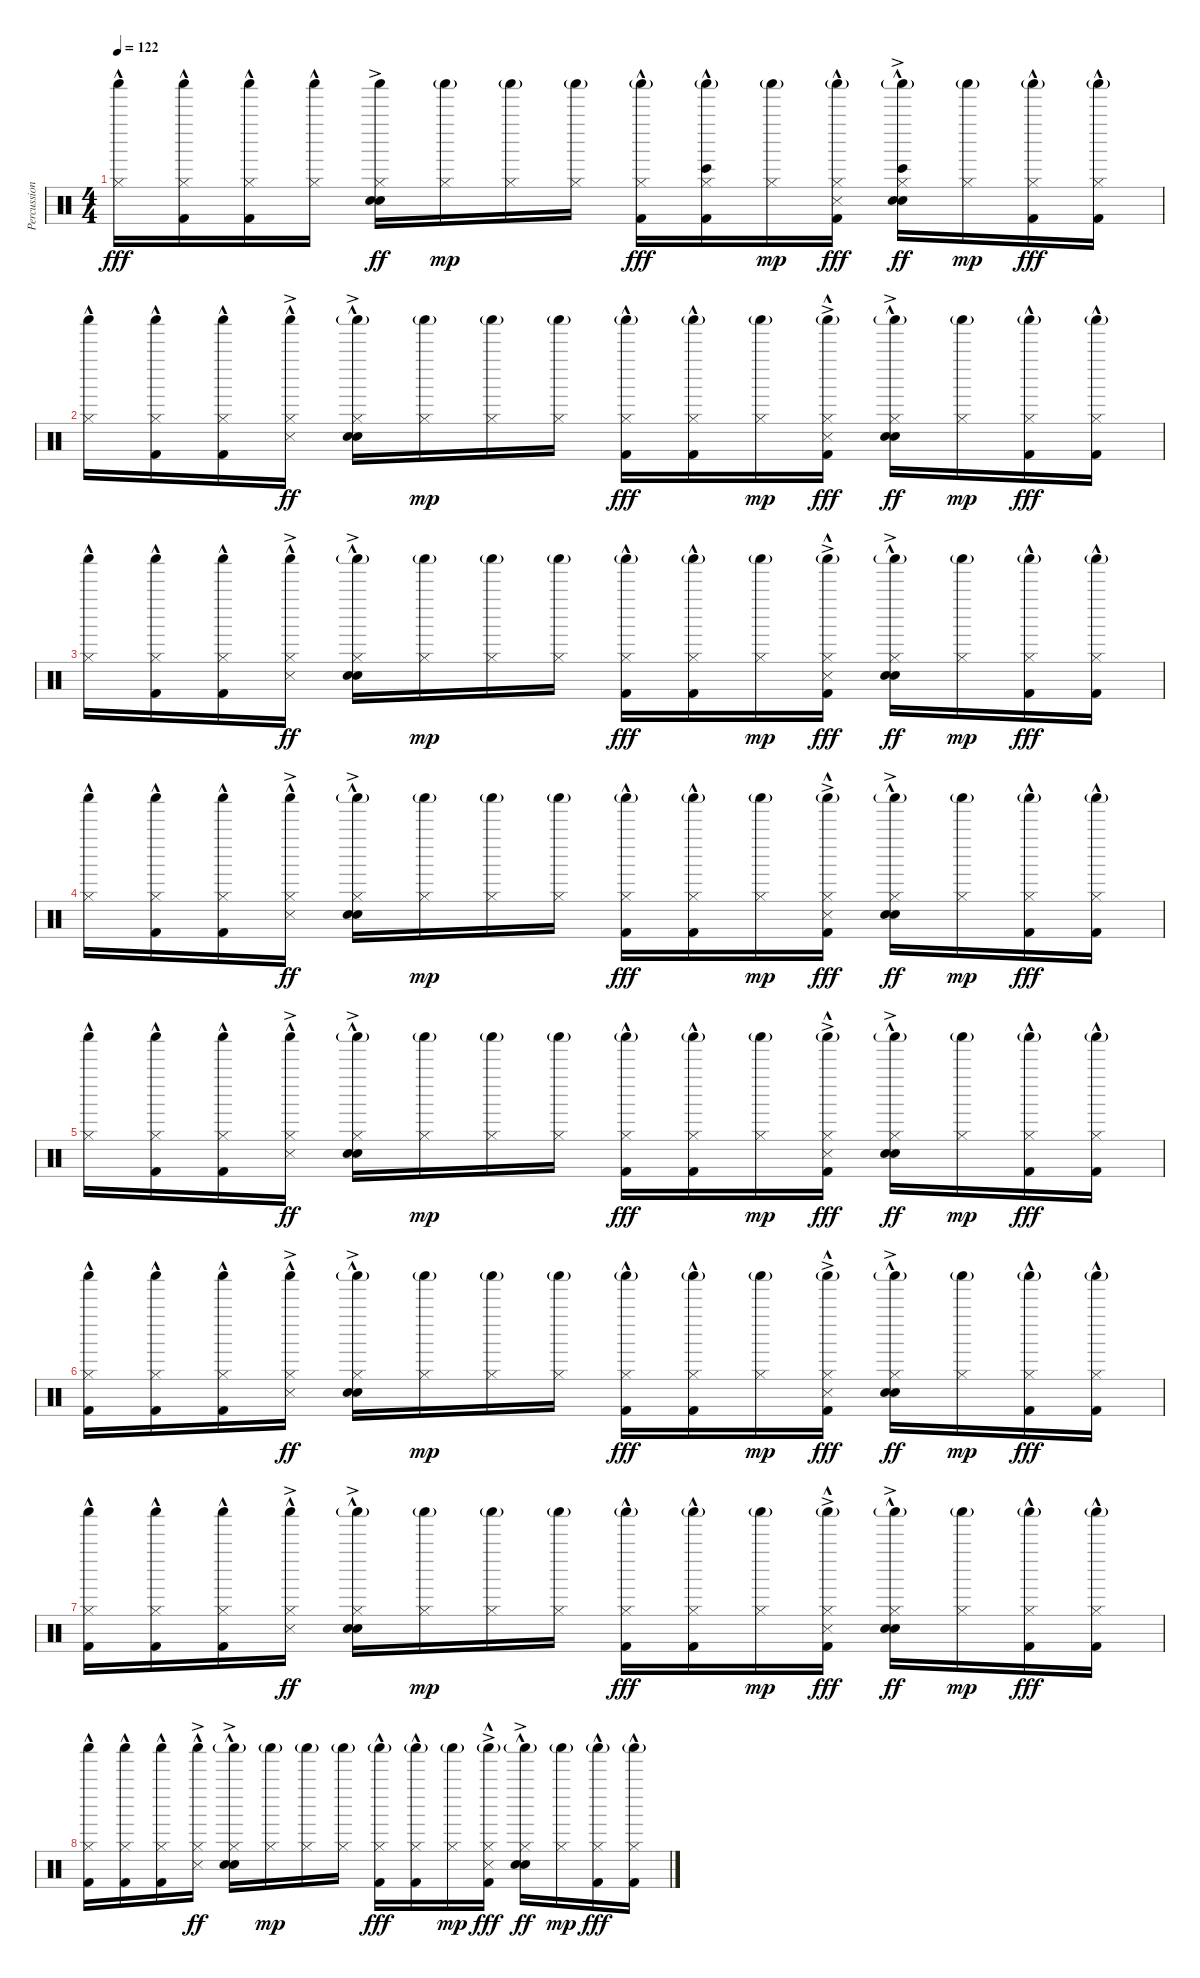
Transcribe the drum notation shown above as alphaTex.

\track ("Percussion" "Percussion") {instrument percussion}
\staff {score}
\articulation defaults
\ts (4 4)
\tempo 122
\clef neutral
\ks c
("Shaker (hit)" "Hi-Hat (closed)"{hac}).16{dy fff} ("Shaker (hit)" "Hi-Hat (closed)"{hac} "Kick (hit) 2"{hac}).16 ("Shaker (hit)" "Hi-Hat (closed)"{hac} "Kick (hit) 2"{hac}).16 ("Shaker (hit)" "Hi-Hat (closed)"{hac}).16 ("Shaker (hit)" "Hi-Hat (closed)" "Hand Clap (hit)" "Snare (hit) 2"{ac}).16{dy ff} ("Shaker (hit)"{g} "Hi-Hat (closed)").16{dy mp} ("Shaker (hit)"{g} "Hi-Hat (closed)").16 ("Shaker (hit)"{g} "Hi-Hat (closed)").16 ("Shaker (hit)"{g} "Hi-Hat (closed)" "Kick (hit) 2"{hac}).16{dy fff} ("Bongo High (hit)"{hac} "Shaker (hit)"{g} "Hi-Hat (closed)" "Kick (hit) 2"{hac}).16 ("Shaker (hit)"{g} "Hi-Hat (closed)").16{dy mp} ("Shaker (hit)"{g} "Hi-Hat (closed)" "Snare (side stick) 3"{hac} "Kick (hit) 2"{hac}).16{dy fff} ("Bongo High (hit)"{hac} "Shaker (hit)"{g} "Hi-Hat (closed)" "Hand Clap (hit)"{ac} "Snare (hit) 2"{ac}).16{dy ff} ("Shaker (hit)"{g} "Hi-Hat (closed)").16{dy mp} ("Shaker (hit)"{g} "Hi-Hat (closed)" "Kick (hit) 2"{hac}).16{dy fff} ("Shaker (hit)"{g} "Hi-Hat (closed)" "Kick (hit) 2"{hac}).16 |
("Shaker (hit)" "Hi-Hat (closed)"{hac}).16 ("Shaker (hit)" "Hi-Hat (closed)"{hac} "Kick (hit) 2"{hac}).16 ("Shaker (hit)" "Hi-Hat (closed)"{hac} "Kick (hit) 2"{hac}).16 ("Shaker (hit)" "Hi-Hat (closed)"{hac} "Snare (side stick) 3"{ac}).16{dy ff} ("Shaker (hit)"{g} "Hi-Hat (closed)" "Hand Clap (hit)"{hac} "Snare (hit) 2"{ac}).16 ("Shaker (hit)"{g} "Hi-Hat (closed)").16{dy mp} ("Shaker (hit)"{g} "Hi-Hat (closed)").16 ("Shaker (hit)"{g} "Hi-Hat (closed)").16 ("Shaker (hit)"{g} "Hi-Hat (closed)" "Kick (hit) 2"{hac}).16{dy fff} ("Shaker (hit)"{g} "Hi-Hat (closed)" "Kick (hit) 2"{hac}).16 ("Shaker (hit)"{g} "Hi-Hat (closed)").16{dy mp} ("Shaker (hit)"{g} "Hi-Hat (closed)" "Snare (side stick) 3"{ac} "Kick (hit) 2"{hac}).16{dy fff} ("Shaker (hit)"{g} "Hi-Hat (closed)" "Hand Clap (hit)"{hac} "Snare (hit) 2"{ac}).16{dy ff} ("Shaker (hit)"{g} "Hi-Hat (closed)").16{dy mp} ("Shaker (hit)"{g} "Hi-Hat (closed)" "Kick (hit) 2"{hac}).16{dy fff} ("Shaker (hit)"{g} "Hi-Hat (closed)" "Kick (hit) 2"{hac}).16 |
("Shaker (hit)" "Hi-Hat (closed)"{hac}).16 ("Shaker (hit)" "Hi-Hat (closed)"{hac} "Kick (hit) 2"{hac}).16 ("Shaker (hit)" "Hi-Hat (closed)"{hac} "Kick (hit) 2"{hac}).16 ("Shaker (hit)" "Hi-Hat (closed)"{hac} "Snare (side stick) 3"{ac}).16{dy ff} ("Shaker (hit)"{g} "Hi-Hat (closed)" "Hand Clap (hit)"{hac} "Snare (hit) 2"{ac}).16 ("Shaker (hit)"{g} "Hi-Hat (closed)").16{dy mp} ("Shaker (hit)"{g} "Hi-Hat (closed)").16 ("Shaker (hit)"{g} "Hi-Hat (closed)").16 ("Shaker (hit)"{g} "Hi-Hat (closed)" "Kick (hit) 2"{hac}).16{dy fff} ("Shaker (hit)"{g} "Hi-Hat (closed)" "Kick (hit) 2"{hac}).16 ("Shaker (hit)"{g} "Hi-Hat (closed)").16{dy mp} ("Shaker (hit)"{g} "Hi-Hat (closed)" "Snare (side stick) 3"{ac} "Kick (hit) 2"{hac}).16{dy fff} ("Shaker (hit)"{g} "Hi-Hat (closed)" "Hand Clap (hit)"{hac} "Snare (hit) 2"{ac}).16{dy ff} ("Shaker (hit)"{g} "Hi-Hat (closed)").16{dy mp} ("Shaker (hit)"{g} "Hi-Hat (closed)" "Kick (hit) 2"{hac}).16{dy fff} ("Shaker (hit)"{g} "Hi-Hat (closed)" "Kick (hit) 2"{hac}).16 |
("Shaker (hit)" "Hi-Hat (closed)"{hac}).16 ("Shaker (hit)" "Hi-Hat (closed)"{hac} "Kick (hit) 2"{hac}).16 ("Shaker (hit)" "Hi-Hat (closed)"{hac} "Kick (hit) 2"{hac}).16 ("Shaker (hit)" "Hi-Hat (closed)"{hac} "Snare (side stick) 3"{ac}).16{dy ff} ("Shaker (hit)"{g} "Hi-Hat (closed)" "Hand Clap (hit)"{hac} "Snare (hit) 2"{ac}).16 ("Shaker (hit)"{g} "Hi-Hat (closed)").16{dy mp} ("Shaker (hit)"{g} "Hi-Hat (closed)").16 ("Shaker (hit)"{g} "Hi-Hat (closed)").16 ("Shaker (hit)"{g} "Hi-Hat (closed)" "Kick (hit) 2"{hac}).16{dy fff} ("Shaker (hit)"{g} "Hi-Hat (closed)" "Kick (hit) 2"{hac}).16 ("Shaker (hit)"{g} "Hi-Hat (closed)").16{dy mp} ("Shaker (hit)"{g} "Hi-Hat (closed)" "Snare (side stick) 3"{ac} "Kick (hit) 2"{hac}).16{dy fff} ("Shaker (hit)"{g} "Hi-Hat (closed)" "Hand Clap (hit)"{hac} "Snare (hit) 2"{ac}).16{dy ff} ("Shaker (hit)"{g} "Hi-Hat (closed)").16{dy mp} ("Shaker (hit)"{g} "Hi-Hat (closed)" "Kick (hit) 2"{hac}).16{dy fff} ("Shaker (hit)"{g} "Hi-Hat (closed)" "Kick (hit) 2"{hac}).16 |
("Shaker (hit)" "Hi-Hat (closed)"{hac}).16 ("Shaker (hit)" "Hi-Hat (closed)"{hac} "Kick (hit) 2"{hac}).16 ("Shaker (hit)" "Hi-Hat (closed)"{hac} "Kick (hit) 2"{hac}).16 ("Shaker (hit)" "Hi-Hat (closed)"{hac} "Snare (side stick) 3"{ac}).16{dy ff} ("Shaker (hit)"{g} "Hi-Hat (closed)" "Hand Clap (hit)"{hac} "Snare (hit) 2"{ac}).16 ("Shaker (hit)"{g} "Hi-Hat (closed)").16{dy mp} ("Shaker (hit)"{g} "Hi-Hat (closed)").16 ("Shaker (hit)"{g} "Hi-Hat (closed)").16 ("Shaker (hit)"{g} "Hi-Hat (closed)" "Kick (hit) 2"{hac}).16{dy fff} ("Shaker (hit)"{g} "Hi-Hat (closed)" "Kick (hit) 2"{hac}).16 ("Shaker (hit)"{g} "Hi-Hat (closed)").16{dy mp} ("Shaker (hit)"{g} "Hi-Hat (closed)" "Snare (side stick) 3"{ac} "Kick (hit) 2"{hac}).16{dy fff} ("Shaker (hit)"{g} "Hi-Hat (closed)" "Hand Clap (hit)"{hac} "Snare (hit) 2"{ac}).16{dy ff} ("Shaker (hit)"{g} "Hi-Hat (closed)").16{dy mp} ("Shaker (hit)"{g} "Hi-Hat (closed)" "Kick (hit) 2"{hac}).16{dy fff} ("Shaker (hit)"{g} "Hi-Hat (closed)" "Kick (hit) 2"{hac}).16 |
("Shaker (hit)" "Hi-Hat (closed)"{hac} "Kick (hit) 2").16 ("Shaker (hit)" "Hi-Hat (closed)"{hac} "Kick (hit) 2"{hac}).16 ("Shaker (hit)" "Hi-Hat (closed)"{hac} "Kick (hit) 2"{hac}).16 ("Shaker (hit)" "Hi-Hat (closed)"{hac} "Snare (side stick) 3"{ac}).16{dy ff} ("Shaker (hit)"{g} "Hi-Hat (closed)" "Hand Clap (hit)"{hac} "Snare (hit) 2"{ac}).16 ("Shaker (hit)"{g} "Hi-Hat (closed)").16{dy mp} ("Shaker (hit)"{g} "Hi-Hat (closed)").16 ("Shaker (hit)"{g} "Hi-Hat (closed)").16 ("Shaker (hit)"{g} "Hi-Hat (closed)" "Kick (hit) 2"{hac}).16{dy fff} ("Shaker (hit)"{g} "Hi-Hat (closed)" "Kick (hit) 2"{hac}).16 ("Shaker (hit)"{g} "Hi-Hat (closed)").16{dy mp} ("Shaker (hit)"{g} "Hi-Hat (closed)" "Snare (side stick) 3"{ac} "Kick (hit) 2"{hac}).16{dy fff} ("Shaker (hit)"{g} "Hi-Hat (closed)" "Hand Clap (hit)"{hac} "Snare (hit) 2"{ac}).16{dy ff} ("Shaker (hit)"{g} "Hi-Hat (closed)").16{dy mp} ("Shaker (hit)"{g} "Hi-Hat (closed)" "Kick (hit) 2"{hac}).16{dy fff} ("Shaker (hit)"{g} "Hi-Hat (closed)" "Kick (hit) 2"{hac}).16 |
("Shaker (hit)" "Hi-Hat (closed)"{hac} "Kick (hit) 2").16 ("Shaker (hit)" "Hi-Hat (closed)"{hac} "Kick (hit) 2"{hac}).16 ("Shaker (hit)" "Hi-Hat (closed)"{hac} "Kick (hit) 2"{hac}).16 ("Shaker (hit)" "Hi-Hat (closed)"{hac} "Snare (side stick) 3"{ac}).16{dy ff} ("Shaker (hit)"{g} "Hi-Hat (closed)" "Hand Clap (hit)"{hac} "Snare (hit) 2"{ac}).16 ("Shaker (hit)"{g} "Hi-Hat (closed)").16{dy mp} ("Shaker (hit)"{g} "Hi-Hat (closed)").16 ("Shaker (hit)"{g} "Hi-Hat (closed)").16 ("Shaker (hit)"{g} "Hi-Hat (closed)" "Kick (hit) 2"{hac}).16{dy fff} ("Shaker (hit)"{g} "Hi-Hat (closed)" "Kick (hit) 2"{hac}).16 ("Shaker (hit)"{g} "Hi-Hat (closed)").16{dy mp} ("Shaker (hit)"{g} "Hi-Hat (closed)" "Snare (side stick) 3"{ac} "Kick (hit) 2"{hac}).16{dy fff} ("Shaker (hit)"{g} "Hi-Hat (closed)" "Hand Clap (hit)"{hac} "Snare (hit) 2"{ac}).16{dy ff} ("Shaker (hit)"{g} "Hi-Hat (closed)").16{dy mp} ("Shaker (hit)"{g} "Hi-Hat (closed)" "Kick (hit) 2"{hac}).16{dy fff} ("Shaker (hit)"{g} "Hi-Hat (closed)" "Kick (hit) 2"{hac}).16 |
("Shaker (hit)" "Hi-Hat (closed)"{hac} "Kick (hit) 2").16 ("Shaker (hit)" "Hi-Hat (closed)"{hac} "Kick (hit) 2"{hac}).16 ("Shaker (hit)" "Hi-Hat (closed)"{hac} "Kick (hit) 2"{hac}).16 ("Shaker (hit)" "Hi-Hat (closed)"{hac} "Snare (side stick) 3"{ac}).16{dy ff} ("Shaker (hit)"{g} "Hi-Hat (closed)" "Hand Clap (hit)"{hac} "Snare (hit) 2"{ac}).16 ("Shaker (hit)"{g} "Hi-Hat (closed)").16{dy mp} ("Shaker (hit)"{g} "Hi-Hat (closed)").16 ("Shaker (hit)"{g} "Hi-Hat (closed)").16 ("Shaker (hit)"{g} "Hi-Hat (closed)" "Kick (hit) 2"{hac}).16{dy fff} ("Shaker (hit)"{g} "Hi-Hat (closed)" "Kick (hit) 2"{hac}).16 ("Shaker (hit)"{g} "Hi-Hat (closed)").16{dy mp} ("Shaker (hit)"{g} "Hi-Hat (closed)" "Snare (side stick) 3"{ac} "Kick (hit) 2"{hac}).16{dy fff} ("Shaker (hit)"{g} "Hi-Hat (closed)" "Hand Clap (hit)"{hac} "Snare (hit) 2"{ac}).16{dy ff} ("Shaker (hit)"{g} "Hi-Hat (closed)").16{dy mp} ("Shaker (hit)"{g} "Hi-Hat (closed)" "Kick (hit) 2"{hac}).16{dy fff} ("Shaker (hit)"{g} "Hi-Hat (closed)" "Kick (hit) 2"{hac}).16
